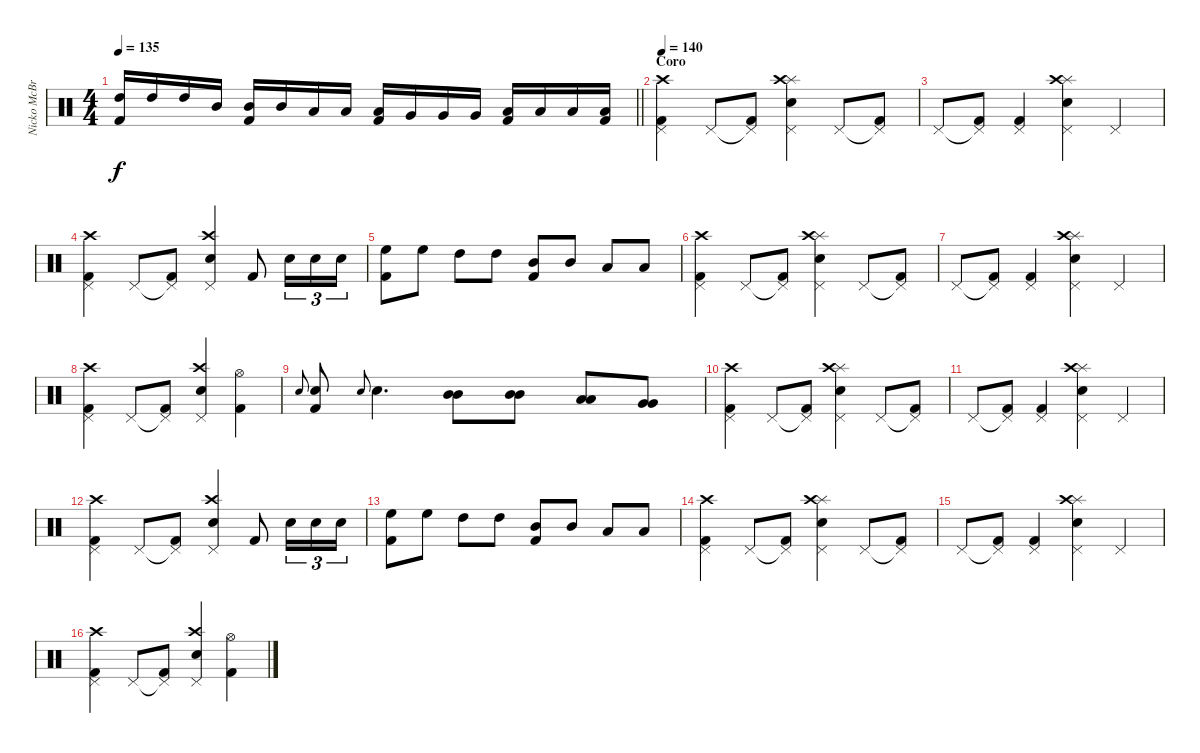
\track ("Nicko McBrain" "Nicko McBr") {instrument percussion}
\staff {score}
\articulation defaults
\ts (4 4)
\tempo 135
\clef neutral
\barLineRight lightlight
\ks c
("High Tom (hit)" "Kick (hit) 2").16{dy f} "High Tom (hit)".16 "High Tom (hit)".16 "Mid Tom (hit)".16 ("Mid Tom (hit)" "Kick (hit) 2").16 "Mid Tom (hit)".16 "Low Tom (hit)".16 "Low Tom (hit)".16 ("Low Tom (hit)" "Kick (hit) 2").16 "Very Low Tom (hit)".16 "Very Low Tom (hit)".16 "Very Low Tom (hit)".16 ("Low Floor Tom (hit)" "Kick (hit) 2").16 "Low Floor Tom (hit)".16 "Low Floor Tom (hit)".16 ("Low Floor Tom (hit)" "Kick (hit) 2").16 |
\section ("" "Coro")
\tempo 140
("Pedal Hi-Hat (hit)" "Crash high (hit)" "Kick (hit) 2").4 "Pedal Hi-Hat (hit)".8 ("Pedal Hi-Hat (hit)"{t} "Kick (hit) 2").8 ("Pedal Hi-Hat (hit)" "Snare (hit) 2" "Splash (hit)" "Crash high (hit)").4 "Pedal Hi-Hat (hit)".8 ("Pedal Hi-Hat (hit)"{t} "Kick (hit) 2").8 |
"Pedal Hi-Hat (hit)".8 ("Pedal Hi-Hat (hit)"{t} "Kick (hit) 2").8 ("Pedal Hi-Hat (hit)" "Kick (hit) 2").4 ("Pedal Hi-Hat (hit)" "Snare (hit) 2" "Splash (hit)" "Crash high (hit)").4 "Pedal Hi-Hat (hit)".4 |
("Pedal Hi-Hat (hit)" "Crash high (hit)" "Kick (hit) 2").4 "Pedal Hi-Hat (hit)".8 ("Pedal Hi-Hat (hit)"{t} "Kick (hit) 2").8 ("Pedal Hi-Hat (hit)" "Snare (hit) 2" "Crash high (hit)").4 "Kick (hit) 2".8 "Snare (hit) 2".16{tu (3 2)} "Snare (hit) 2".16{tu (3 2)} "Snare (hit) 2".16{tu (3 2)} |
("High Floor Tom (hit)" "Kick (hit) 2").8 "High Floor Tom (hit)".8 "High Tom (hit)".8 "High Tom (hit)".8 ("Mid Tom (hit)" "Kick (hit) 2").8 "Mid Tom (hit)".8 "Low Tom (hit)".8 "Low Tom (hit)".8 |
("Pedal Hi-Hat (hit)" "Crash high (hit)" "Kick (hit) 2").4 "Pedal Hi-Hat (hit)".8 ("Pedal Hi-Hat (hit)"{t} "Kick (hit) 2").8 ("Pedal Hi-Hat (hit)" "Snare (hit) 2" "Splash (hit)" "Crash high (hit)").4 "Pedal Hi-Hat (hit)".8 ("Pedal Hi-Hat (hit)"{t} "Kick (hit) 2").8 |
"Pedal Hi-Hat (hit)".8 ("Pedal Hi-Hat (hit)"{t} "Kick (hit) 2").8 ("Pedal Hi-Hat (hit)" "Kick (hit) 2").4 ("Pedal Hi-Hat (hit)" "Snare (hit) 2" "Splash (hit)" "Crash high (hit)").4 "Pedal Hi-Hat (hit)".4 |
("Pedal Hi-Hat (hit)" "Crash high (hit)" "Kick (hit) 2").4 "Pedal Hi-Hat (hit)".8 ("Pedal Hi-Hat (hit)"{t} "Kick (hit) 2").8 ("Pedal Hi-Hat (hit)" "Snare (hit) 2" "Crash high (hit)").4 ("Hi-Hat (open)" "Kick (hit) 2").4 |
"Snare (hit) 2".8{gr onbeat} ("Snare (hit) 2" "Kick (hit) 2").8 "Snare (hit) 2".8{gr onbeat} "Snare (hit) 2".4{d} ("Mid Tom (hit)" "Mid Tom (hit)").8 ("Mid Tom (hit)" "Mid Tom (hit)").8 ("Low Tom (hit)" "Low Tom (hit)").8 ("Very Low Tom (hit)" "Very Low Tom (hit)").8 |
("Pedal Hi-Hat (hit)" "Crash high (hit)" "Kick (hit) 2").4 "Pedal Hi-Hat (hit)".8 ("Pedal Hi-Hat (hit)"{t} "Kick (hit) 2").8 ("Pedal Hi-Hat (hit)" "Snare (hit) 2" "Splash (hit)" "Crash high (hit)").4 "Pedal Hi-Hat (hit)".8 ("Pedal Hi-Hat (hit)"{t} "Kick (hit) 2").8 |
"Pedal Hi-Hat (hit)".8 ("Pedal Hi-Hat (hit)"{t} "Kick (hit) 2").8 ("Pedal Hi-Hat (hit)" "Kick (hit) 2").4 ("Pedal Hi-Hat (hit)" "Snare (hit) 2" "Splash (hit)" "Crash high (hit)").4 "Pedal Hi-Hat (hit)".4 |
("Pedal Hi-Hat (hit)" "Crash high (hit)" "Kick (hit) 2").4 "Pedal Hi-Hat (hit)".8 ("Pedal Hi-Hat (hit)"{t} "Kick (hit) 2").8 ("Pedal Hi-Hat (hit)" "Snare (hit) 2" "Crash high (hit)").4 "Kick (hit) 2".8 "Snare (hit) 2".16{tu (3 2)} "Snare (hit) 2".16{tu (3 2)} "Snare (hit) 2".16{tu (3 2)} |
("High Floor Tom (hit)" "Kick (hit) 2").8 "High Floor Tom (hit)".8 "High Tom (hit)".8 "High Tom (hit)".8 ("Mid Tom (hit)" "Kick (hit) 2").8 "Mid Tom (hit)".8 "Low Tom (hit)".8 "Low Tom (hit)".8 |
("Pedal Hi-Hat (hit)" "Crash high (hit)" "Kick (hit) 2").4 "Pedal Hi-Hat (hit)".8 ("Pedal Hi-Hat (hit)"{t} "Kick (hit) 2").8 ("Pedal Hi-Hat (hit)" "Snare (hit) 2" "Splash (hit)" "Crash high (hit)").4 "Pedal Hi-Hat (hit)".8 ("Pedal Hi-Hat (hit)"{t} "Kick (hit) 2").8 |
"Pedal Hi-Hat (hit)".8 ("Pedal Hi-Hat (hit)"{t} "Kick (hit) 2").8 ("Pedal Hi-Hat (hit)" "Kick (hit) 2").4 ("Pedal Hi-Hat (hit)" "Snare (hit) 2" "Splash (hit)" "Crash high (hit)").4 "Pedal Hi-Hat (hit)".4 |
("Pedal Hi-Hat (hit)" "Crash high (hit)" "Kick (hit) 2").4 "Pedal Hi-Hat (hit)".8 ("Pedal Hi-Hat (hit)"{t} "Kick (hit) 2").8 ("Pedal Hi-Hat (hit)" "Snare (hit) 2" "Crash high (hit)").4 ("Hi-Hat (open)" "Kick (hit) 2").4
